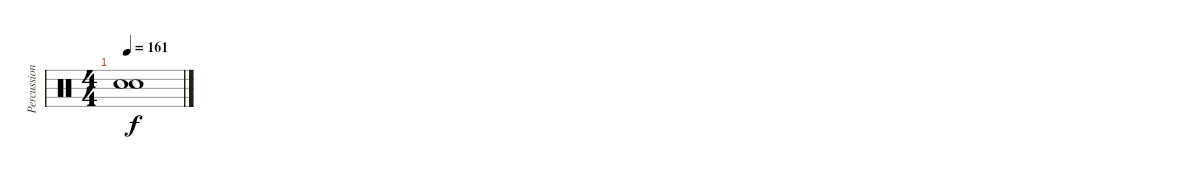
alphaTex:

\track ("Percussions" "Percussion") {instrument percussion}
\staff {score}
\articulation defaults
\ts (4 4)
\tempo 161
\clef neutral
\ks c
("Electric Snare (hit)" "Electric Snare (hit)").1{dy f}
